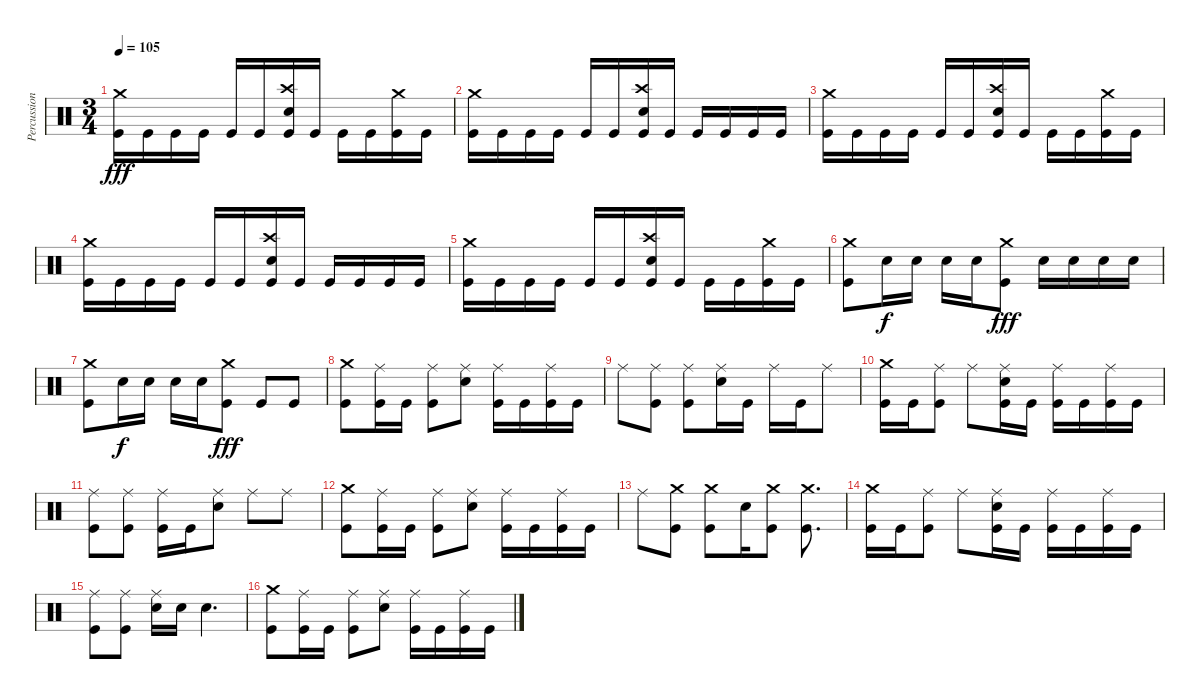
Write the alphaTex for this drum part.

\track ("Percussions" "Percussion") {instrument percussion}
\staff {score}
\articulation defaults
\ts (3 4)
\tempo 105
\clef neutral
\ks c
("Crash medium (hit)" "Kick (hit)").16{dy fff} "Kick (hit)".16 "Kick (hit)".16 "Kick (hit)".16 "Kick (hit)".16 "Kick (hit)".16 ("Crash high (hit)" "Snare (hit) 2" "Kick (hit)").16 "Kick (hit)".16 "Kick (hit)".16 "Kick (hit)".16 ("Crash medium (hit)" "Kick (hit)").16 "Kick (hit)".16 |
("Crash medium (hit)" "Kick (hit)").16 "Kick (hit)".16 "Kick (hit)".16 "Kick (hit)".16 "Kick (hit)".16 "Kick (hit)".16 ("Crash high (hit)" "Snare (hit) 2" "Kick (hit)").16 "Kick (hit)".16 "Kick (hit)".16 "Kick (hit)".16 "Kick (hit)".16 "Kick (hit)".16 |
("Crash medium (hit)" "Kick (hit)").16 "Kick (hit)".16 "Kick (hit)".16 "Kick (hit)".16 "Kick (hit)".16 "Kick (hit)".16 ("Crash high (hit)" "Snare (hit) 2" "Kick (hit)").16 "Kick (hit)".16 "Kick (hit)".16 "Kick (hit)".16 ("Crash medium (hit)" "Kick (hit)").16 "Kick (hit)".16 |
("Crash medium (hit)" "Kick (hit)").16 "Kick (hit)".16 "Kick (hit)".16 "Kick (hit)".16 "Kick (hit)".16 "Kick (hit)".16 ("Crash high (hit)" "Snare (hit) 2" "Kick (hit)").16 "Kick (hit)".16 "Kick (hit)".16 "Kick (hit)".16 "Kick (hit)".16 "Kick (hit)".16 |
("Crash medium (hit)" "Kick (hit)").16 "Kick (hit)".16 "Kick (hit)".16 "Kick (hit)".16 "Kick (hit)".16 "Kick (hit)".16 ("Crash high (hit)" "Snare (hit) 2" "Kick (hit)").16 "Kick (hit)".16 "Kick (hit)".16 "Kick (hit)".16 ("Crash medium (hit)" "Kick (hit)").16 "Kick (hit)".16 |
("Crash medium (hit)" "Kick (hit)").8 "Snare (hit) 2".16{dy f} "Snare (hit) 2".16 "Snare (hit) 2".16 "Snare (hit) 2".16 ("Crash medium (hit)" "Kick (hit)").8{dy fff} "Snare (hit) 2".16 "Snare (hit) 2".16 "Snare (hit) 2".16 "Snare (hit) 2".16 |
("Crash medium (hit)" "Kick (hit)").8 "Snare (hit) 2".16{dy f} "Snare (hit) 2".16 "Snare (hit) 2".16 "Snare (hit) 2".16 ("Crash medium (hit)" "Kick (hit)").8{dy fff} "Kick (hit)".8 "Kick (hit)".8 |
("Crash medium (hit)" "Kick (hit)").8 ("Ride (middle)" "Kick (hit)").16 "Kick (hit)".16 ("Ride (middle)" "Kick (hit)").8 ("Ride (middle)" "Snare (hit) 2").8 ("Ride (middle)" "Kick (hit)").16 "Kick (hit)".16 ("Ride (middle)" "Kick (hit)").16 "Kick (hit)".16 |
"Ride (middle)".8 ("Ride (middle)" "Kick (hit)").8 ("Ride (middle)" "Kick (hit)").8 ("Ride (middle)" "Snare (hit) 2").16 "Kick (hit)".16 "Ride (middle)".16 "Kick (hit)".16 "Ride (middle)".8 |
("Crash medium (hit)" "Kick (hit)").16 "Kick (hit)".16 ("Ride (middle)" "Kick (hit)").8 "Ride (middle)".8 ("Ride (middle)" "Snare (hit) 2" "Kick (hit)").16 "Kick (hit)".16 ("Ride (middle)" "Kick (hit)").16 "Kick (hit)".16 ("Ride (middle)" "Kick (hit)").16 "Kick (hit)".16 |
("Ride (middle)" "Kick (hit)").8 ("Ride (middle)" "Kick (hit)").8 ("Ride (middle)" "Kick (hit)").16 "Kick (hit)".16 ("Ride (middle)" "Snare (hit) 2").8 "Ride (middle)".8 "Ride (middle)".8 |
("Crash medium (hit)" "Kick (hit)").8 ("Ride (middle)" "Kick (hit)").16 "Kick (hit)".16 ("Ride (middle)" "Kick (hit)").8 ("Ride (middle)" "Snare (hit) 2").8 ("Ride (middle)" "Kick (hit)").16 "Kick (hit)".16 ("Ride (middle)" "Kick (hit)").16 "Kick (hit)".16 |
"Ride (middle)".8 ("Crash medium (hit)" "Kick (hit)").8 ("Crash medium (hit)" "Kick (hit)").8 "Snare (hit) 2".16 ("Crash medium (hit)" "Kick (hit)").8 ("Crash medium (hit)" "Kick (hit)").8{d} |
("Crash medium (hit)" "Kick (hit)").16 "Kick (hit)".16 ("Ride (middle)" "Kick (hit)").8 "Ride (middle)".8 ("Ride (middle)" "Snare (hit) 2" "Kick (hit)").16 "Kick (hit)".16 ("Ride (middle)" "Kick (hit)").16 "Kick (hit)".16 ("Ride (middle)" "Kick (hit)").16 "Kick (hit)".16 |
("Ride (middle)" "Kick (hit)").8 ("Ride (middle)" "Kick (hit)").8 ("Ride (middle)" "Snare (hit) 2").16 "Snare (hit) 2".16 "Snare (hit) 2".4{d} |
("Crash medium (hit)" "Kick (hit)").8 ("Ride (middle)" "Kick (hit)").16 "Kick (hit)".16 ("Ride (middle)" "Kick (hit)").8 ("Ride (middle)" "Snare (hit) 2").8 ("Ride (middle)" "Kick (hit)").16 "Kick (hit)".16 ("Ride (middle)" "Kick (hit)").16 "Kick (hit)".16
